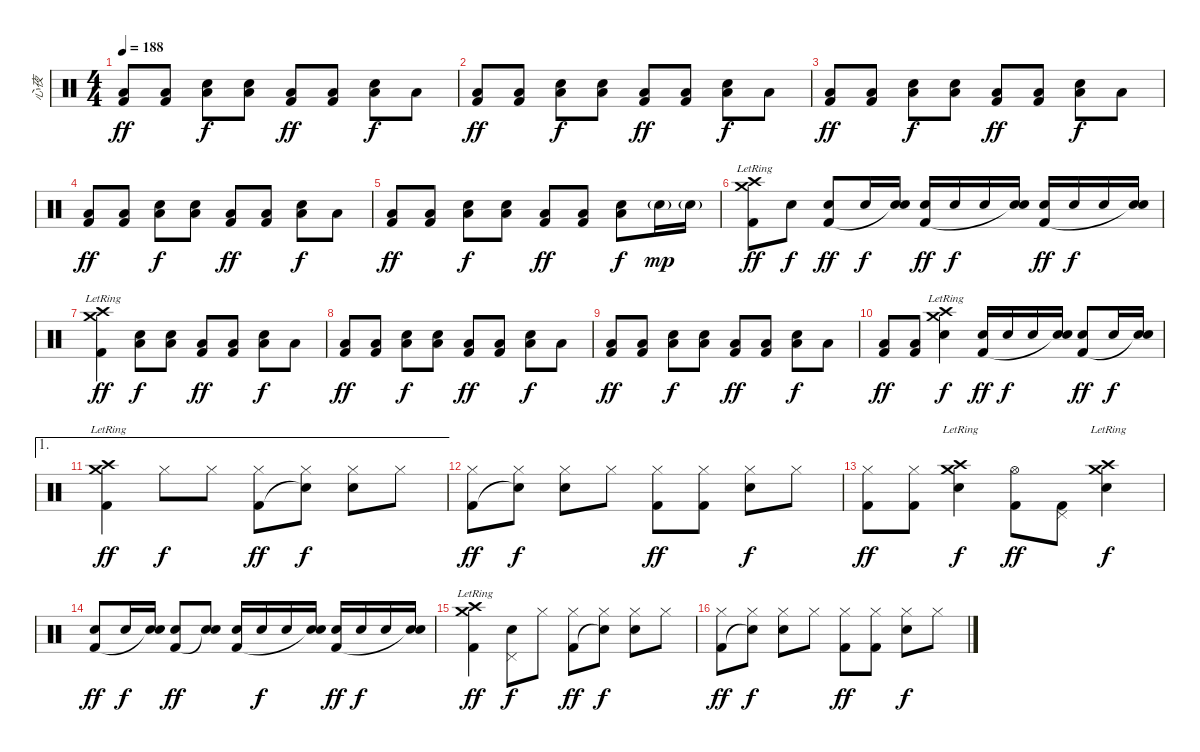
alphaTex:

\track ("心夜" "心夜") {instrument percussion}
\staff {score}
\articulation defaults
\ts (4 4)
\tempo 188
\clef neutral
\ks c
("Low Floor Tom (hit)" "Kick (hit) 2").8{dy ff} ("Low Floor Tom (hit)" "Kick (hit) 2").8 ("Electric Snare (hit)" "Low Floor Tom (hit)").8{dy f} ("Electric Snare (hit)" "Low Floor Tom (hit)").8 ("Low Floor Tom (hit)" "Kick (hit) 2").8{dy ff} ("Low Floor Tom (hit)" "Kick (hit) 2").8 ("Electric Snare (hit)" "Low Floor Tom (hit)").8{dy f} "Low Floor Tom (hit)".8 |
("Low Floor Tom (hit)" "Kick (hit) 2").8{dy ff} ("Low Floor Tom (hit)" "Kick (hit) 2").8 ("Electric Snare (hit)" "Low Floor Tom (hit)").8{dy f} ("Electric Snare (hit)" "Low Floor Tom (hit)").8 ("Low Floor Tom (hit)" "Kick (hit) 2").8{dy ff} ("Low Floor Tom (hit)" "Kick (hit) 2").8 ("Electric Snare (hit)" "Low Floor Tom (hit)").8{dy f} "Low Floor Tom (hit)".8 |
("Low Floor Tom (hit)" "Kick (hit) 2").8{dy ff} ("Low Floor Tom (hit)" "Kick (hit) 2").8 ("Electric Snare (hit)" "Low Floor Tom (hit)").8{dy f} ("Electric Snare (hit)" "Low Floor Tom (hit)").8 ("Low Floor Tom (hit)" "Kick (hit) 2").8{dy ff} ("Low Floor Tom (hit)" "Kick (hit) 2").8 ("Electric Snare (hit)" "Low Floor Tom (hit)").8{dy f} "Low Floor Tom (hit)".8 |
("Low Floor Tom (hit)" "Kick (hit) 2").8{dy ff} ("Low Floor Tom (hit)" "Kick (hit) 2").8 ("Electric Snare (hit)" "Low Floor Tom (hit)").8{dy f} ("Electric Snare (hit)" "Low Floor Tom (hit)").8 ("Low Floor Tom (hit)" "Kick (hit) 2").8{dy ff} ("Low Floor Tom (hit)" "Kick (hit) 2").8 ("Electric Snare (hit)" "Low Floor Tom (hit)").8{dy f} "Low Floor Tom (hit)".8 |
("Low Floor Tom (hit)" "Kick (hit) 2").8{dy ff} ("Low Floor Tom (hit)" "Kick (hit) 2").8 ("Electric Snare (hit)" "Low Floor Tom (hit)").8{dy f} ("Electric Snare (hit)" "Low Floor Tom (hit)").8 ("Low Floor Tom (hit)" "Kick (hit) 2").8{dy ff} ("Low Floor Tom (hit)" "Kick (hit) 2").8 ("Electric Snare (hit)" "Low Floor Tom (hit)").8{dy f} "Electric Snare (hit)"{g}.16{dy mp} "Electric Snare (hit)"{g}.16 |
("Crash medium (hit)"{lr} "Crash high (hit)"{lr} "Kick (hit) 2").8{dy ff} "Electric Snare (hit)".8{dy f} ("Electric Snare (hit)" "Kick (hit) 2").8{dy ff} "Electric Snare (hit)".16{dy f} ("Electric Snare (hit)" "Snare (hit)"{t}).16 ("Electric Snare (hit)" "Kick (hit) 2").16{dy ff} "Electric Snare (hit)".16{dy f} "Electric Snare (hit)".16 ("Electric Snare (hit)" "Snare (hit)"{t}).16 ("Electric Snare (hit)" "Kick (hit) 2").16{dy ff} "Electric Snare (hit)".16{dy f} "Electric Snare (hit)".16 ("Electric Snare (hit)" "Snare (hit)"{t}).16 |
("Crash medium (hit)"{lr} "Crash high (hit)"{lr} "Kick (hit) 2").4{dy ff} ("Electric Snare (hit)" "Low Floor Tom (hit)").8{dy f} ("Electric Snare (hit)" "Low Floor Tom (hit)").8 ("Low Floor Tom (hit)" "Kick (hit) 2").8{dy ff} ("Low Floor Tom (hit)" "Kick (hit) 2").8 ("Electric Snare (hit)" "Low Floor Tom (hit)").8{dy f} "Low Floor Tom (hit)".8 |
("Low Floor Tom (hit)" "Kick (hit) 2").8{dy ff} ("Low Floor Tom (hit)" "Kick (hit) 2").8 ("Electric Snare (hit)" "Low Floor Tom (hit)").8{dy f} ("Electric Snare (hit)" "Low Floor Tom (hit)").8 ("Low Floor Tom (hit)" "Kick (hit) 2").8{dy ff} ("Low Floor Tom (hit)" "Kick (hit) 2").8 ("Electric Snare (hit)" "Low Floor Tom (hit)").8{dy f} "Low Floor Tom (hit)".8 |
("Low Floor Tom (hit)" "Kick (hit) 2").8{dy ff} ("Low Floor Tom (hit)" "Kick (hit) 2").8 ("Electric Snare (hit)" "Low Floor Tom (hit)").8{dy f} ("Electric Snare (hit)" "Low Floor Tom (hit)").8 ("Low Floor Tom (hit)" "Kick (hit) 2").8{dy ff} ("Low Floor Tom (hit)" "Kick (hit) 2").8 ("Electric Snare (hit)" "Low Floor Tom (hit)").8{dy f} "Low Floor Tom (hit)".8 |
("Low Floor Tom (hit)" "Kick (hit) 2").8{dy ff} ("Low Floor Tom (hit)" "Kick (hit) 2").8 ("Crash medium (hit)"{lr} "Electric Snare (hit)" "Crash high (hit)"{lr}).4{dy f} ("Electric Snare (hit)" "Kick (hit) 2").16{dy ff} "Electric Snare (hit)".16{dy f} "Electric Snare (hit)".16 ("Electric Snare (hit)" "Snare (hit)"{t}).16 ("Electric Snare (hit)" "Kick (hit) 2").8{dy ff} "Electric Snare (hit)".16{dy f} ("Electric Snare (hit)" "Snare (hit)"{t}).16 |
\ae 1
("Crash medium (hit)"{lr} "Crash high (hit)"{lr} "Kick (hit) 2").4{dy ff} "Hi-Hat (closed)".8{dy f} "Hi-Hat (closed)".8 ("Hi-Hat (closed)" "Kick (hit) 2").8{dy ff} ("Hi-Hat (closed)" "Snare (hit)"{t}).8{dy f} ("Hi-Hat (closed)" "Electric Snare (hit)").8 "Hi-Hat (closed)".8 |
("Hi-Hat (closed)" "Kick (hit) 2").8{dy ff} ("Hi-Hat (closed)" "Snare (hit)"{t}).8{dy f} ("Hi-Hat (closed)" "Electric Snare (hit)").8 "Hi-Hat (closed)".8 ("Hi-Hat (closed)" "Kick (hit) 2").8{dy ff} ("Hi-Hat (closed)" "Kick (hit) 2").8 ("Hi-Hat (closed)" "Electric Snare (hit)").8{dy f} "Hi-Hat (closed)".8 |
("Hi-Hat (closed)" "Kick (hit) 2").8{dy ff} ("Hi-Hat (closed)" "Kick (hit) 2").8 ("Crash medium (hit)"{lr} "Electric Snare (hit)"{lr} "Crash high (hit)"{lr}).4{dy f} ("Hi-Hat (open)" "Kick (hit) 2").8{dy ff} ("Pedal Hi-Hat (hit)" "Kick (hit) 2").8 ("Crash medium (hit)"{lr} "Electric Snare (hit)" "Crash high (hit)"{lr}).4{dy f} |
("Electric Snare (hit)" "Kick (hit) 2").8{dy ff} "Electric Snare (hit)".16{dy f} ("Electric Snare (hit)" "Snare (hit)"{t}).16 ("Electric Snare (hit)" "Kick (hit) 2").8{dy ff} ("Electric Snare (hit)" "Snare (hit)"{t}).8 ("Electric Snare (hit)" "Kick (hit) 2").16 "Electric Snare (hit)".16{dy f} "Electric Snare (hit)".16 ("Electric Snare (hit)" "Snare (hit)"{t}).16 ("Electric Snare (hit)" "Kick (hit) 2").16{dy ff} "Electric Snare (hit)".16{dy f} "Electric Snare (hit)".16 ("Electric Snare (hit)" "Snare (hit)"{t}).16 |
("Crash medium (hit)"{lr} "Crash high (hit)"{lr} "Kick (hit) 2").4{dy ff} ("Pedal Hi-Hat (hit)" "Electric Snare (hit)").8{dy f} "Hi-Hat (closed)".8 ("Hi-Hat (closed)" "Kick (hit) 2").8{dy ff} ("Hi-Hat (closed)" "Snare (hit)"{t}).8{dy f} ("Hi-Hat (closed)" "Electric Snare (hit)").8 "Hi-Hat (closed)".8 |
("Hi-Hat (closed)" "Kick (hit) 2").8{dy ff} ("Hi-Hat (closed)" "Snare (hit)"{t}).8{dy f} ("Hi-Hat (closed)" "Electric Snare (hit)").8 "Hi-Hat (closed)".8 ("Hi-Hat (closed)" "Kick (hit) 2").8{dy ff} ("Hi-Hat (closed)" "Kick (hit) 2").8 ("Hi-Hat (closed)" "Electric Snare (hit)").8{dy f} "Hi-Hat (closed)".8
